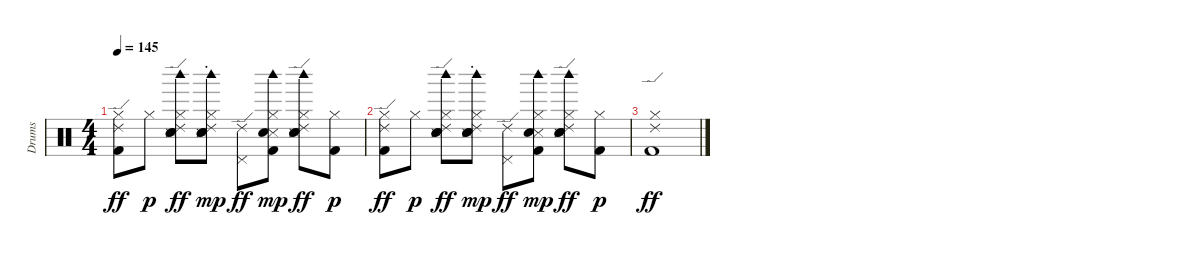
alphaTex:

\track ("Drums" "Drums") {instrument percussion}
\staff {score}
\articulation defaults
\ts (4 4)
\tempo 145
\clef neutral
\ks c
("Kick (hit) 2" "Hi-Hat (closed)" "Ride (edge) 2").8{dy ff} "Hi-Hat (closed)".8{dy p} ("Snare (side stick) 3" "Hand Clap (hit)" "Electric Snare (hit)" "Hi-Hat (closed)" "Ride (edge) 2" "Woodblock high (hit)").8{dy ff} ("Ride (choke) 2" "Snare (side stick) 3" "Hand Clap (hit)" "Electric Snare (hit)" "Hi-Hat (closed)" "Woodblock high (hit)").8{dy mp} ("Pedal Hi-Hat (hit)" "Ride (edge) 2").8{dy ff} ("Kick (hit) 2" "Snare (side stick) 3" "Hand Clap (hit)" "Hi-Hat (closed)" "Woodblock high (hit)").8{dy mp} ("Snare (side stick) 3" "Hand Clap (hit)" "Electric Snare (hit)" "Hi-Hat (closed)" "Ride (edge) 2" "Woodblock high (hit)").8{dy ff} ("Kick (hit) 2" "Hi-Hat (closed)").8{dy p} |
("Kick (hit) 2" "Hi-Hat (closed)" "Ride (edge) 2").8{dy ff} "Hi-Hat (closed)".8{dy p} ("Snare (side stick) 3" "Hand Clap (hit)" "Electric Snare (hit)" "Hi-Hat (closed)" "Ride (edge) 2" "Woodblock high (hit)").8{dy ff} ("Ride (choke) 2" "Snare (side stick) 3" "Hand Clap (hit)" "Electric Snare (hit)" "Hi-Hat (closed)" "Woodblock high (hit)").8{dy mp} ("Pedal Hi-Hat (hit)" "Ride (edge) 2").8{dy ff} ("Kick (hit) 2" "Snare (side stick) 3" "Hand Clap (hit)" "Hi-Hat (closed)" "Woodblock high (hit)").8{dy mp} ("Snare (side stick) 3" "Hand Clap (hit)" "Electric Snare (hit)" "Hi-Hat (closed)" "Ride (edge) 2" "Woodblock high (hit)").8{dy ff} ("Kick (hit) 2" "Hi-Hat (closed)").8{dy p} |
("Kick (hit) 2" "Hi-Hat (closed)" "Ride (edge) 2").1{dy ff}
